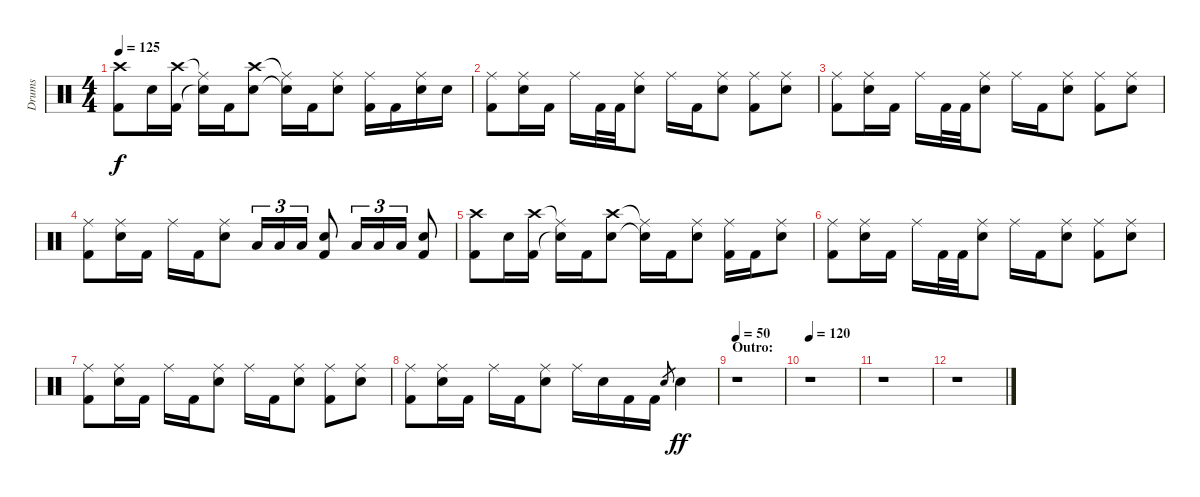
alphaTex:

\track ("Drums" "Drums") {instrument percussion}
\staff {score}
\articulation defaults
\ts (4 4)
\tempo 125
\clef neutral
\ks c
("Crash high (hit)" "Kick (hit) 2").8{dy f} "Electric Snare (hit)".16 ("Crash high (hit)" "Kick (hit) 2").16 ("Ride (middle)"{t} "Snare (hit)"{t}).16 "Kick (hit) 2".16 ("Crash high (hit)" "Electric Snare (hit)").8 ("Ride (middle)"{t} "Snare (hit)"{t}).16 "Kick (hit) 2".16 ("Ride (middle)" "Electric Snare (hit)").8 ("Ride (middle)" "Kick (hit) 2").16 "Kick (hit) 2".16 ("Ride (middle)" "Electric Snare (hit)").16 "Electric Snare (hit)".16 |
("Ride (middle)" "Kick (hit) 2").8 ("Ride (middle)" "Electric Snare (hit)").16 "Kick (hit) 2".16 "Ride (middle)".16 "Kick (hit) 2".32 "Kick (hit) 2".32 ("Ride (middle)" "Electric Snare (hit)").8 "Ride (middle)".16 "Kick (hit) 2".16 ("Ride (middle)" "Electric Snare (hit)").8 ("Ride (middle)" "Kick (hit) 2").8 ("Ride (middle)" "Electric Snare (hit)").8 |
("Ride (middle)" "Kick (hit) 2").8 ("Ride (middle)" "Electric Snare (hit)").16 "Kick (hit) 2".16 "Ride (middle)".16 "Kick (hit) 2".32 "Kick (hit) 2".32 ("Ride (middle)" "Electric Snare (hit)").8 "Ride (middle)".16 "Kick (hit) 2".16 ("Ride (middle)" "Electric Snare (hit)").8 ("Ride (middle)" "Kick (hit) 2").8 ("Ride (middle)" "Electric Snare (hit)").8 |
("Ride (middle)" "Kick (hit) 2").8 ("Ride (middle)" "Electric Snare (hit)").16 "Kick (hit) 2".16 "Ride (middle)".16 "Kick (hit) 2".16 ("Ride (middle)" "Electric Snare (hit)").8 "Low Tom (hit)".16{tu (3 2)} "Low Tom (hit)".16{tu (3 2)} "Low Tom (hit)".16{tu (3 2)} ("Electric Snare (hit)" "Kick (hit) 2").8 "Low Tom (hit)".16{tu (3 2)} "Low Tom (hit)".16{tu (3 2)} "Low Tom (hit)".16{tu (3 2)} ("Electric Snare (hit)" "Kick (hit) 2").8 |
("Crash high (hit)" "Kick (hit) 2").8 "Electric Snare (hit)".16 ("Crash high (hit)" "Kick (hit) 2").16 ("Ride (middle)"{t} "Snare (hit)"{t}).16 "Kick (hit) 2".16 ("Crash high (hit)" "Electric Snare (hit)").8 ("Ride (middle)"{t} "Snare (hit)"{t}).16 "Kick (hit) 2".16 ("Ride (middle)" "Electric Snare (hit)").8 ("Ride (middle)" "Kick (hit) 2").16 "Kick (hit) 2".16 ("Ride (middle)" "Electric Snare (hit)").8 |
("Ride (middle)" "Kick (hit) 2").8 ("Ride (middle)" "Electric Snare (hit)").16 "Kick (hit) 2".16 "Ride (middle)".16 "Kick (hit) 2".32 "Kick (hit) 2".32 ("Ride (middle)" "Electric Snare (hit)").8 "Ride (middle)".16 "Kick (hit) 2".16 ("Ride (middle)" "Electric Snare (hit)").8 ("Ride (middle)" "Kick (hit) 2").8 ("Ride (middle)" "Electric Snare (hit)").8 |
("Ride (middle)" "Kick (hit) 2").8 ("Ride (middle)" "Electric Snare (hit)").16 "Kick (hit) 2".16 "Ride (middle)".16 "Kick (hit) 2".16 ("Ride (middle)" "Electric Snare (hit)").8 "Ride (middle)".16 "Kick (hit) 2".16 ("Ride (middle)" "Electric Snare (hit)").8 ("Ride (middle)" "Kick (hit) 2").8 ("Ride (middle)" "Electric Snare (hit)").8 |
("Ride (middle)" "Kick (hit) 2").8 ("Ride (middle)" "Electric Snare (hit)").16 "Kick (hit) 2".16 "Ride (middle)".16 "Kick (hit) 2".16 ("Ride (middle)" "Electric Snare (hit)").8 "Ride (middle)".16 "Electric Snare (hit)".16 "Kick (hit) 2".16 "Kick (hit) 2".16 "Electric Snare (hit)".8{gr} "Electric Snare (hit)".4{dy ff} |
\section ("" "Outro:")
\tempo 50
r.1 |
\tempo 120
r.1 |
r.1 |
r.1
